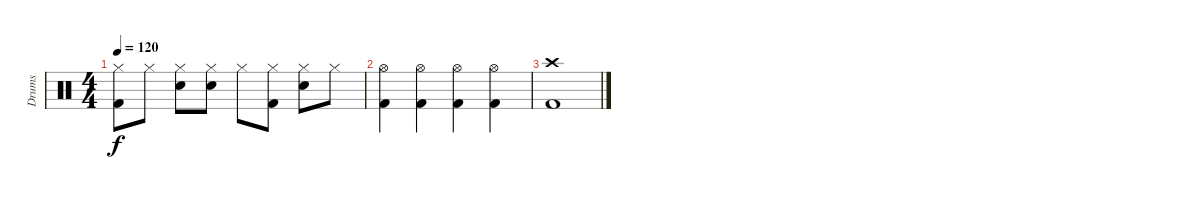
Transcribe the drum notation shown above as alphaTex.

\track ("Drums" "Drums") {instrument percussion}
\staff {score}
\articulation defaults
\ts (4 4)
\tempo 120
\clef neutral
\ks c
("Hi-Hat (closed)" "Kick (hit) 2").8{dy f} "Hi-Hat (closed)".8 ("Hi-Hat (closed)" "Snare (hit) 2").8 ("Hi-Hat (closed)" "Snare (hit) 2").8 "Hi-Hat (closed)".8 ("Hi-Hat (closed)" "Kick (hit) 2").8 ("Hi-Hat (closed)" "Snare (hit) 2").8 "Hi-Hat (closed)".8 |
("Hi-Hat (open)" "Kick (hit) 2").4 ("Hi-Hat (open)" "Kick (hit) 2").4 ("Hi-Hat (open)" "Kick (hit) 2").4 ("Hi-Hat (open)" "Kick (hit) 2").4 |
("Crash high (hit)" "Kick (hit) 2").1
